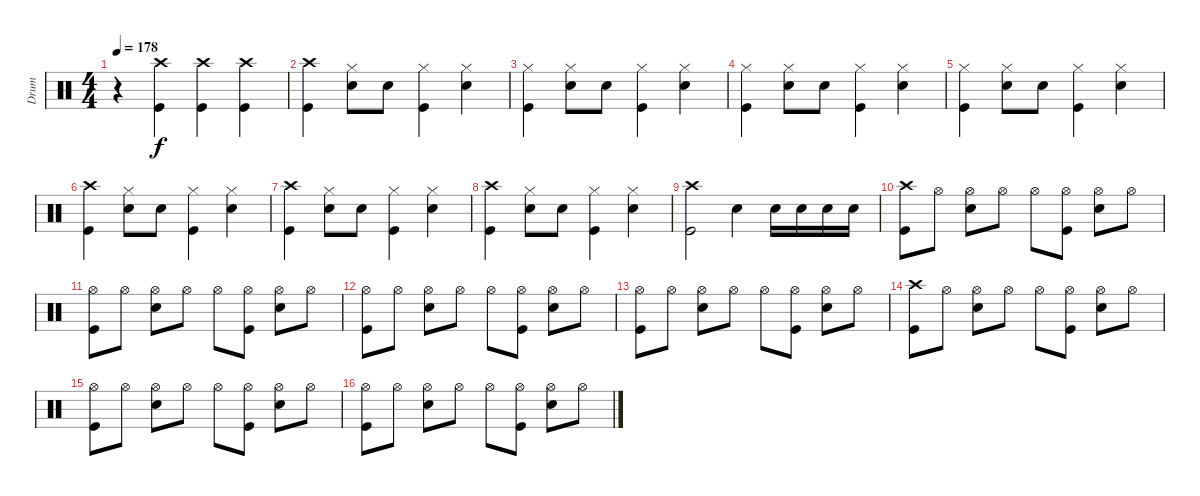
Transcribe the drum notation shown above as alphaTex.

\track ("Drum" "Drum") {instrument percussion}
\staff {score}
\articulation defaults
\ts (4 4)
\tempo 178
\clef neutral
\ks c
r.4{dy f} ("Crash high (hit)" "Kick (hit)").4 ("Crash high (hit)" "Kick (hit)").4 ("Crash high (hit)" "Kick (hit)").4 |
("Crash high (hit)" "Kick (hit)").4 ("Hi-Hat (closed)" "Snare (hit) 2").8 "Snare (hit) 2".8 ("Hi-Hat (closed)" "Kick (hit)").4 ("Hi-Hat (closed)" "Snare (hit) 2").4 |
("Hi-Hat (closed)" "Kick (hit)").4 ("Hi-Hat (closed)" "Snare (hit) 2").8 "Snare (hit) 2".8 ("Hi-Hat (closed)" "Kick (hit)").4 ("Hi-Hat (closed)" "Snare (hit) 2").4 |
("Hi-Hat (closed)" "Kick (hit)").4 ("Hi-Hat (closed)" "Snare (hit) 2").8 "Snare (hit) 2".8 ("Hi-Hat (closed)" "Kick (hit)").4 ("Hi-Hat (closed)" "Snare (hit) 2").4 |
("Hi-Hat (closed)" "Kick (hit)").4 ("Hi-Hat (closed)" "Snare (hit) 2").8 "Snare (hit) 2".8 ("Hi-Hat (closed)" "Kick (hit)").4 ("Hi-Hat (closed)" "Snare (hit) 2").4 |
("Crash high (hit)" "Kick (hit)").4 ("Hi-Hat (closed)" "Snare (hit) 2").8 "Snare (hit) 2".8 ("Hi-Hat (closed)" "Kick (hit)").4 ("Hi-Hat (closed)" "Snare (hit) 2").4 |
("Crash high (hit)" "Kick (hit)").4 ("Hi-Hat (closed)" "Snare (hit) 2").8 "Snare (hit) 2".8 ("Hi-Hat (closed)" "Kick (hit)").4 ("Hi-Hat (closed)" "Snare (hit) 2").4 |
("Crash high (hit)" "Kick (hit)").4 ("Hi-Hat (closed)" "Snare (hit) 2").8 "Snare (hit) 2".8 ("Hi-Hat (closed)" "Kick (hit)").4 ("Hi-Hat (closed)" "Snare (hit) 2").4 |
("Crash high (hit)" "Kick (hit)").2 "Snare (hit) 2".4 "Snare (hit) 2".16 "Snare (hit) 2".16 "Snare (hit) 2".16 "Snare (hit) 2".16 |
("Crash high (hit)" "Kick (hit)").8 "Hi-Hat (open)".8 ("Hi-Hat (open)" "Snare (hit) 2").8 "Hi-Hat (open)".8 "Hi-Hat (open)".8 ("Hi-Hat (open)" "Kick (hit)").8 ("Hi-Hat (open)" "Snare (hit) 2").8 "Hi-Hat (open)".8 |
("Hi-Hat (open)" "Kick (hit)").8 "Hi-Hat (open)".8 ("Hi-Hat (open)" "Snare (hit) 2").8 "Hi-Hat (open)".8 "Hi-Hat (open)".8 ("Hi-Hat (open)" "Kick (hit)").8 ("Hi-Hat (open)" "Snare (hit) 2").8 "Hi-Hat (open)".8 |
("Hi-Hat (open)" "Kick (hit)").8 "Hi-Hat (open)".8 ("Hi-Hat (open)" "Snare (hit) 2").8 "Hi-Hat (open)".8 "Hi-Hat (open)".8 ("Hi-Hat (open)" "Kick (hit)").8 ("Hi-Hat (open)" "Snare (hit) 2").8 "Hi-Hat (open)".8 |
("Hi-Hat (open)" "Kick (hit)").8 "Hi-Hat (open)".8 ("Hi-Hat (open)" "Snare (hit) 2").8 "Hi-Hat (open)".8 "Hi-Hat (open)".8 ("Hi-Hat (open)" "Kick (hit)").8 ("Hi-Hat (open)" "Snare (hit) 2").8 "Hi-Hat (open)".8 |
("Crash high (hit)" "Kick (hit)").8 "Hi-Hat (open)".8 ("Hi-Hat (open)" "Snare (hit) 2").8 "Hi-Hat (open)".8 "Hi-Hat (open)".8 ("Hi-Hat (open)" "Kick (hit)").8 ("Hi-Hat (open)" "Snare (hit) 2").8 "Hi-Hat (open)".8 |
("Hi-Hat (open)" "Kick (hit)").8 "Hi-Hat (open)".8 ("Hi-Hat (open)" "Snare (hit) 2").8 "Hi-Hat (open)".8 "Hi-Hat (open)".8 ("Hi-Hat (open)" "Kick (hit)").8 ("Hi-Hat (open)" "Snare (hit) 2").8 "Hi-Hat (open)".8 |
("Hi-Hat (open)" "Kick (hit)").8 "Hi-Hat (open)".8 ("Hi-Hat (open)" "Snare (hit) 2").8 "Hi-Hat (open)".8 "Hi-Hat (open)".8 ("Hi-Hat (open)" "Kick (hit)").8 ("Hi-Hat (open)" "Snare (hit) 2").8 "Hi-Hat (open)".8
